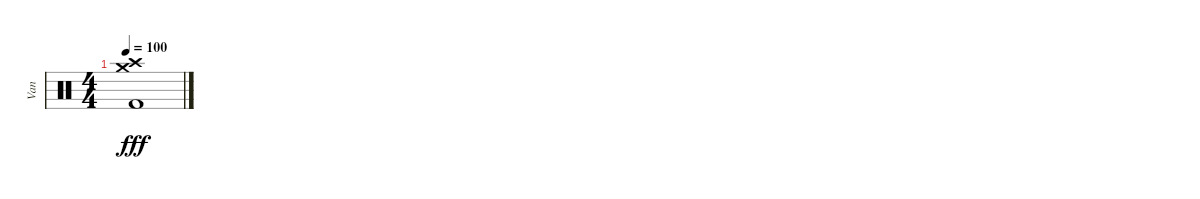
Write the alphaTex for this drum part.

\track ("Van" "Van") {instrument percussion}
\staff {score}
\articulation defaults
\ts (4 4)
\tempo 100
\clef neutral
\ks c
("Crash high (hit)" "Crash medium (hit)" "Kick (hit) 2").1{dy fff}
